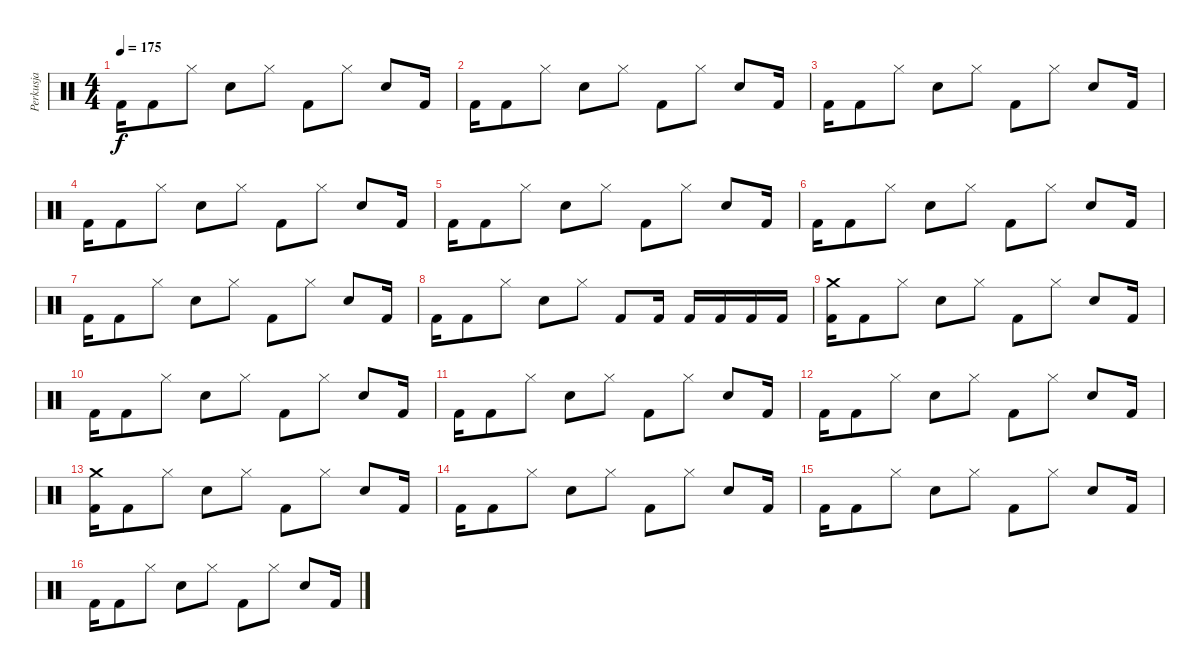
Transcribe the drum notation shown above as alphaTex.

\track ("Perkusja" "Perkusja") {instrument percussion}
\staff {score}
\articulation defaults
\ts (4 4)
\tempo 175
\clef neutral
\ks c "Kick (hit) 2".16{dy f} "Kick (hit) 2".8 "Hi-Hat (closed)".8 "Snare (hit) 2".8 "Hi-Hat (closed)".8 "Kick (hit) 2".8 "Hi-Hat (closed)".8 "Snare (hit) 2".8 "Kick (hit) 2".16
|
"Kick (hit) 2".16 "Kick (hit) 2".8 "Hi-Hat (closed)".8 "Snare (hit) 2".8 "Hi-Hat (closed)".8 "Kick (hit) 2".8 "Hi-Hat (closed)".8 "Snare (hit) 2".8 "Kick (hit) 2".16 |
"Kick (hit) 2".16 "Kick (hit) 2".8 "Hi-Hat (closed)".8 "Snare (hit) 2".8 "Hi-Hat (closed)".8 "Kick (hit) 2".8 "Hi-Hat (closed)".8 "Snare (hit) 2".8 "Kick (hit) 2".16 |
"Kick (hit) 2".16 "Kick (hit) 2".8 "Hi-Hat (closed)".8 "Snare (hit) 2".8 "Hi-Hat (closed)".8 "Kick (hit) 2".8 "Hi-Hat (closed)".8 "Snare (hit) 2".8 "Kick (hit) 2".16 |
"Kick (hit) 2".16 "Kick (hit) 2".8 "Hi-Hat (closed)".8 "Snare (hit) 2".8 "Hi-Hat (closed)".8 "Kick (hit) 2".8 "Hi-Hat (closed)".8 "Snare (hit) 2".8 "Kick (hit) 2".16 |
"Kick (hit) 2".16 "Kick (hit) 2".8 "Hi-Hat (closed)".8 "Snare (hit) 2".8 "Hi-Hat (closed)".8 "Kick (hit) 2".8 "Hi-Hat (closed)".8 "Snare (hit) 2".8 "Kick (hit) 2".16 |
"Kick (hit) 2".16 "Kick (hit) 2".8 "Hi-Hat (closed)".8 "Snare (hit) 2".8 "Hi-Hat (closed)".8 "Kick (hit) 2".8 "Hi-Hat (closed)".8 "Snare (hit) 2".8 "Kick (hit) 2".16 |
"Kick (hit) 2".16 "Kick (hit) 2".8 "Hi-Hat (closed)".8 "Snare (hit) 2".8 "Hi-Hat (closed)".8 "Kick (hit) 2".8 "Kick (hit) 2".16 "Kick (hit) 2".16 "Kick (hit) 2".16 "Kick (hit) 2".16 "Kick (hit) 2".16 |
("Kick (hit) 2" "Crash medium (hit)").16 "Kick (hit) 2".8 "Hi-Hat (closed)".8 "Snare (hit) 2".8 "Hi-Hat (closed)".8 "Kick (hit) 2".8 "Hi-Hat (closed)".8 "Snare (hit) 2".8 "Kick (hit) 2".16 |
"Kick (hit) 2".16 "Kick (hit) 2".8 "Hi-Hat (closed)".8 "Snare (hit) 2".8 "Hi-Hat (closed)".8 "Kick (hit) 2".8 "Hi-Hat (closed)".8 "Snare (hit) 2".8 "Kick (hit) 2".16 |
"Kick (hit) 2".16 "Kick (hit) 2".8 "Hi-Hat (closed)".8 "Snare (hit) 2".8 "Hi-Hat (closed)".8 "Kick (hit) 2".8 "Hi-Hat (closed)".8 "Snare (hit) 2".8 "Kick (hit) 2".16 |
"Kick (hit) 2".16 "Kick (hit) 2".8 "Hi-Hat (closed)".8 "Snare (hit) 2".8 "Hi-Hat (closed)".8 "Kick (hit) 2".8 "Hi-Hat (closed)".8 "Snare (hit) 2".8 "Kick (hit) 2".16 |
("Kick (hit) 2" "Crash medium (hit)").16 "Kick (hit) 2".8 "Hi-Hat (closed)".8 "Snare (hit) 2".8 "Hi-Hat (closed)".8 "Kick (hit) 2".8 "Hi-Hat (closed)".8 "Snare (hit) 2".8 "Kick (hit) 2".16 |
"Kick (hit) 2".16 "Kick (hit) 2".8 "Hi-Hat (closed)".8 "Snare (hit) 2".8 "Hi-Hat (closed)".8 "Kick (hit) 2".8 "Hi-Hat (closed)".8 "Snare (hit) 2".8 "Kick (hit) 2".16 |
"Kick (hit) 2".16 "Kick (hit) 2".8 "Hi-Hat (closed)".8 "Snare (hit) 2".8 "Hi-Hat (closed)".8 "Kick (hit) 2".8 "Hi-Hat (closed)".8 "Snare (hit) 2".8 "Kick (hit) 2".16 |
"Kick (hit) 2".16 "Kick (hit) 2".8 "Hi-Hat (closed)".8 "Snare (hit) 2".8 "Hi-Hat (closed)".8 "Kick (hit) 2".8 "Hi-Hat (closed)".8 "Snare (hit) 2".8 "Kick (hit) 2".16
